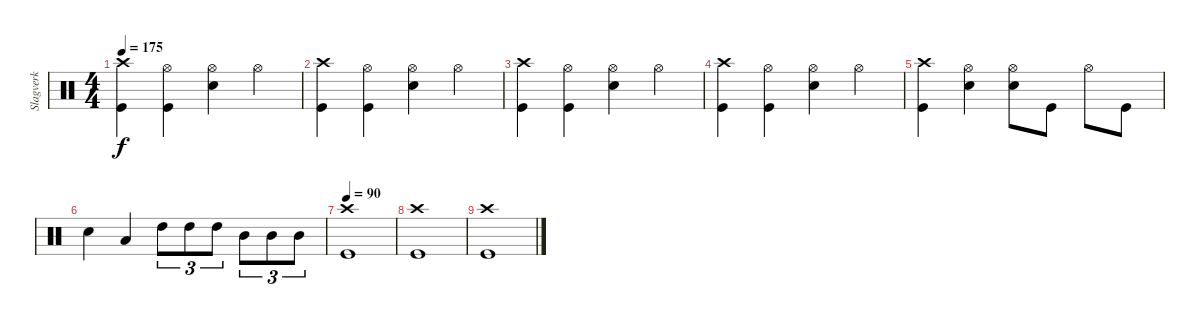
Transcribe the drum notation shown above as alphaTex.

\track ("Slagverk" "Slagverk") {instrument percussion}
\staff {score}
\articulation defaults
\ts (4 4)
\tempo 175
\clef neutral
\ks c
("Crash high (hit)" "Kick (hit)").4{dy f} ("Hi-Hat (open)" "Kick (hit)").4 ("Hi-Hat (open)" "Electric Snare (hit)").4 "Hi-Hat (open)".4 |
("Crash high (hit)" "Kick (hit)").4 ("Hi-Hat (open)" "Kick (hit)").4 ("Hi-Hat (open)" "Electric Snare (hit)").4 "Hi-Hat (open)".4 |
("Crash high (hit)" "Kick (hit)").4 ("Hi-Hat (open)" "Kick (hit)").4 ("Hi-Hat (open)" "Electric Snare (hit)").4 "Hi-Hat (open)".4 |
("Crash high (hit)" "Kick (hit)").4 ("Hi-Hat (open)" "Kick (hit)").4 ("Hi-Hat (open)" "Electric Snare (hit)").4 "Hi-Hat (open)".4 |
("Crash high (hit)" "Kick (hit)").4 ("Hi-Hat (open)" "Electric Snare (hit)").4 ("Hi-Hat (open)" "Electric Snare (hit)").8 "Kick (hit)".8 "Hi-Hat (open)".8 "Kick (hit)".8 |
"Electric Snare (hit)".4 "Low Tom (hit)".4 "High Tom (hit)".8{tu (3 2)} "High Tom (hit)".8{tu (3 2)} "High Tom (hit)".8{tu (3 2)} "Mid Tom (hit)".8{tu (3 2)} "Mid Tom (hit)".8{tu (3 2)} "Mid Tom (hit)".8{tu (3 2)} |
\tempo 90
("Crash high (hit)" "Kick (hit)").1 |
("Crash high (hit)" "Kick (hit)").1 |
("Crash high (hit)" "Kick (hit)").1
